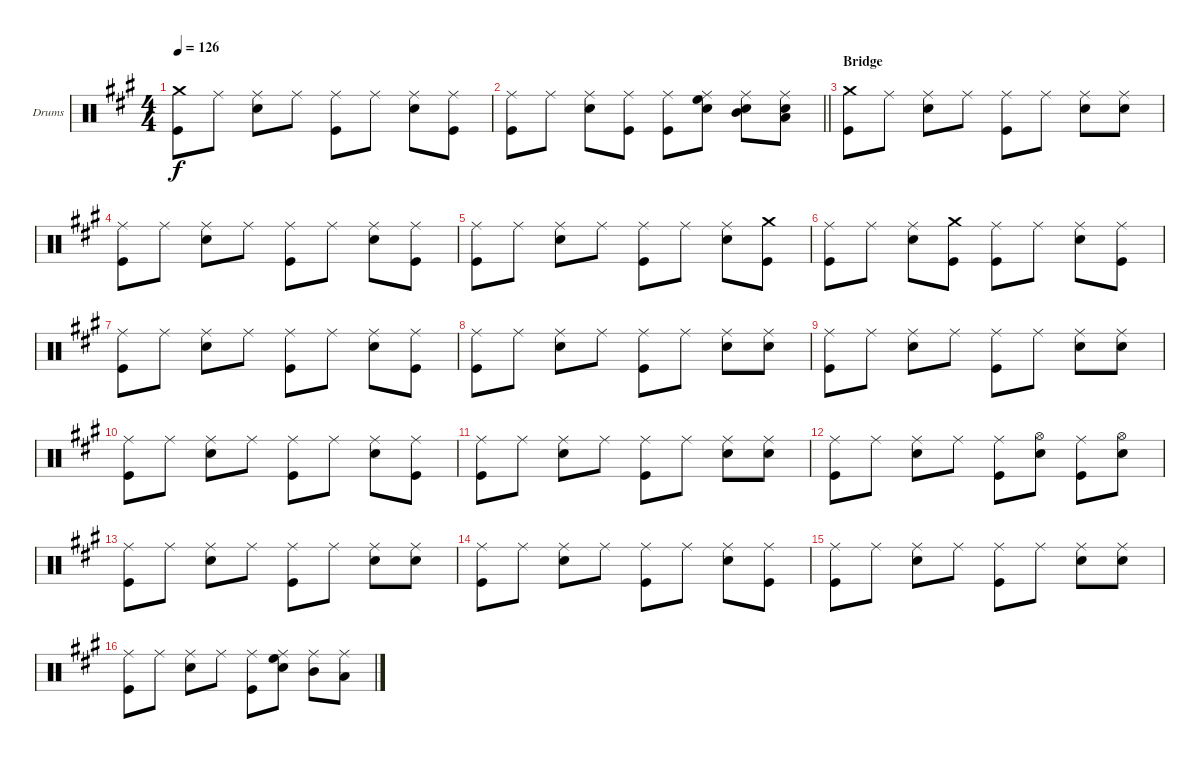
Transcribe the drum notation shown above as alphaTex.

\bracketExtendMode groupsimilarinstruments
\firstSystemTrackNameOrientation horizontal
\otherSystemsTrackNameOrientation horizontal
\track ("Drumkit" "Drums") {instrument percussion}
\staff {score}
\articulation defaults
\ts (4 4)
\tempo 126
\clef neutral
\ks a
("Crash medium (hit)" "Kick (hit)").8{dy f} "Ride (middle)".8 ("Ride (middle)" "Snare (hit) 2").8 "Ride (middle)".8 ("Ride (middle)" "Kick (hit)").8 "Ride (middle)".8 ("Ride (middle)" "Snare (hit) 2").8 ("Ride (middle)" "Kick (hit)").8 |
\barLineRight lightlight
("Ride (middle)" "Kick (hit)").8 "Ride (middle)".8 ("Ride (middle)" "Snare (hit) 2").8 ("Ride (middle)" "Kick (hit)").8 ("Ride (middle)" "Kick (hit)").8 ("Ride (middle)" "High Floor Tom (hit)" "Snare (hit) 2").8 ("Ride (middle)" "Mid Tom (hit)" "Snare (hit) 2").8 ("Ride (middle)" "Low Tom (hit)" "Snare (hit) 2").8 |
\section ("" "Bridge")
("Crash medium (hit)" "Kick (hit)").8 "Ride (middle)".8 ("Ride (middle)" "Snare (hit) 2").8 "Ride (middle)".8 ("Ride (middle)" "Kick (hit)").8 "Ride (middle)".8 ("Ride (middle)" "Snare (hit) 2").8 ("Ride (middle)" "Snare (hit) 2").8 |
("Ride (middle)" "Kick (hit)").8 "Ride (middle)".8 ("Ride (middle)" "Snare (hit) 2").8 "Ride (middle)".8 ("Ride (middle)" "Kick (hit)").8 "Ride (middle)".8 ("Ride (middle)" "Snare (hit) 2").8 ("Ride (middle)" "Kick (hit)").8 |
("Ride (middle)" "Kick (hit)").8 "Ride (middle)".8 ("Ride (middle)" "Snare (hit) 2").8 "Ride (middle)".8 ("Ride (middle)" "Kick (hit)").8 "Ride (middle)".8 ("Ride (middle)" "Snare (hit) 2").8 ("Crash medium (hit)" "Kick (hit)").8 |
("Ride (middle)" "Kick (hit)").8 "Ride (middle)".8 ("Ride (middle)" "Snare (hit) 2").8 ("Crash medium (hit)" "Kick (hit)").8 ("Ride (middle)" "Kick (hit)").8 "Ride (middle)".8 ("Ride (middle)" "Snare (hit) 2").8 ("Ride (middle)" "Kick (hit)").8 |
("Ride (middle)" "Kick (hit)").8 "Ride (middle)".8 ("Ride (middle)" "Snare (hit) 2").8 "Ride (middle)".8 ("Ride (middle)" "Kick (hit)").8 "Ride (middle)".8 ("Ride (middle)" "Snare (hit) 2").8 ("Ride (middle)" "Kick (hit)").8 |
("Ride (middle)" "Kick (hit)").8 "Ride (middle)".8 ("Ride (middle)" "Snare (hit) 2").8 "Ride (middle)".8 ("Ride (middle)" "Kick (hit)").8 "Ride (middle)".8 ("Ride (middle)" "Snare (hit) 2").8 ("Ride (middle)" "Snare (hit) 2").8 |
("Ride (middle)" "Kick (hit)").8 "Ride (middle)".8 ("Ride (middle)" "Snare (hit) 2").8 "Ride (middle)".8 ("Ride (middle)" "Kick (hit)").8 "Ride (middle)".8 ("Ride (middle)" "Snare (hit) 2").8 ("Ride (middle)" "Snare (hit) 2").8 |
("Ride (middle)" "Kick (hit)").8 "Ride (middle)".8 ("Ride (middle)" "Snare (hit) 2").8 "Ride (middle)".8 ("Ride (middle)" "Kick (hit)").8 "Ride (middle)".8 ("Ride (middle)" "Snare (hit) 2").8 ("Ride (middle)" "Kick (hit)").8 |
("Ride (middle)" "Kick (hit)").8 "Ride (middle)".8 ("Ride (middle)" "Snare (hit) 2").8 "Ride (middle)".8 ("Ride (middle)" "Kick (hit)").8 "Ride (middle)".8 ("Ride (middle)" "Snare (hit) 2").8 ("Ride (middle)" "Snare (hit) 2").8 |
("Ride (middle)" "Kick (hit)").8 "Ride (middle)".8 ("Ride (middle)" "Snare (hit) 2").8 "Ride (middle)".8 ("Ride (middle)" "Kick (hit)").8 ("Hi-Hat (open)" "Snare (hit) 2").8 ("Ride (middle)" "Kick (hit)").8 ("Hi-Hat (open)" "Snare (hit) 2").8 |
("Ride (middle)" "Kick (hit)").8 "Ride (middle)".8 ("Ride (middle)" "Snare (hit) 2").8 "Ride (middle)".8 ("Ride (middle)" "Kick (hit)").8 "Ride (middle)".8 ("Ride (middle)" "Snare (hit) 2").8 ("Ride (middle)" "Snare (hit) 2").8 |
("Ride (middle)" "Kick (hit)").8 "Ride (middle)".8 ("Ride (middle)" "Snare (hit) 2").8 "Ride (middle)".8 ("Ride (middle)" "Kick (hit)").8 "Ride (middle)".8 ("Ride (middle)" "Snare (hit) 2").8 ("Ride (middle)" "Kick (hit)").8 |
("Ride (middle)" "Kick (hit)").8 "Ride (middle)".8 ("Ride (middle)" "Snare (hit) 2").8 "Ride (middle)".8 ("Ride (middle)" "Kick (hit)").8 "Ride (middle)".8 ("Ride (middle)" "Snare (hit) 2").8 ("Ride (middle)" "Snare (hit) 2").8 |
("Ride (middle)" "Kick (hit)").8 "Ride (middle)".8 ("Ride (middle)" "Snare (hit) 2").8 "Ride (middle)".8 ("Ride (middle)" "Kick (hit)").8 ("Ride (middle)" "High Floor Tom (hit)" "Snare (hit) 2").8 ("Ride (middle)" "Mid Tom (hit)").8 ("Ride (middle)" "Low Tom (hit)").8
